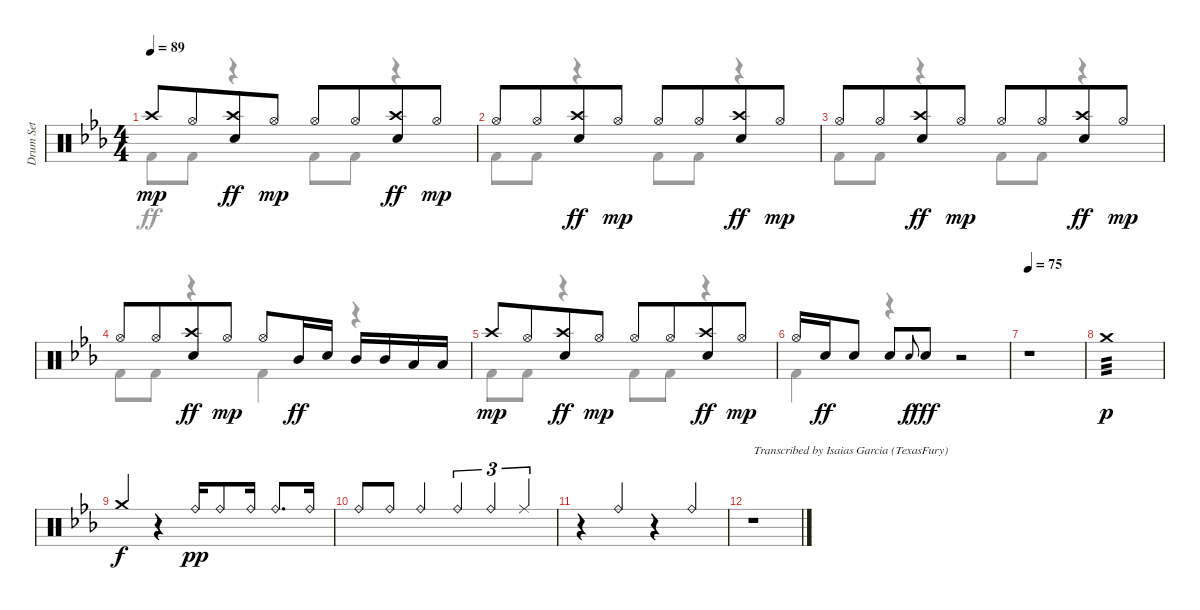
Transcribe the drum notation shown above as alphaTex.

\track ("Drum Set" "Drum Set") {instrument percussion}
\staff {score}
\articulation defaults
\voice
\ts (4 4)
\tempo 89
\clef neutral
\ks eb "Crash high (hit)".8{dy mp} "Hi-Hat (open)".8{beam merge}
("Crash high (hit)" "Electric Snare (hit)").8{dy ff} "Hi-Hat (open)".8{dy mp} "Hi-Hat (open)".8 "Hi-Hat (open)".8{beam merge} ("Crash high (hit)" "Electric Snare (hit)").8{dy ff} "Hi-Hat (open)".8{dy mp} |
"Hi-Hat (open)".8 "Hi-Hat (open)".8{beam merge} ("Crash high (hit)" "Electric Snare (hit)").8{dy ff} "Hi-Hat (open)".8{dy mp} "Hi-Hat (open)".8 "Hi-Hat (open)".8{beam merge} ("Crash high (hit)" "Electric Snare (hit)").8{dy ff} "Hi-Hat (open)".8{dy mp} |
"Hi-Hat (open)".8 "Hi-Hat (open)".8{beam merge} ("Crash high (hit)" "Electric Snare (hit)").8{dy ff} "Hi-Hat (open)".8{dy mp} "Hi-Hat (open)".8 "Hi-Hat (open)".8{beam merge} ("Crash high (hit)" "Electric Snare (hit)").8{dy ff} "Hi-Hat (open)".8{dy mp} |
"Hi-Hat (open)".8 "Hi-Hat (open)".8{beam merge} ("Crash high (hit)" "Electric Snare (hit)").8{dy ff} "Hi-Hat (open)".8{dy mp} "Hi-Hat (open)".8 "Mid Tom (hit)".16{dy ff} "Electric Snare (hit)".16 "Mid Tom (hit)".16 "Mid Tom (hit)".16 "Low Tom (hit)".16 "Low Tom (hit)".16 |
"Crash high (hit)".8{dy mp} "Hi-Hat (open)".8{beam merge} ("Crash high (hit)" "Electric Snare (hit)").8{dy ff} "Hi-Hat (open)".8{dy mp} "Hi-Hat (open)".8 "Hi-Hat (open)".8{beam merge} ("Crash high (hit)" "Electric Snare (hit)").8{dy ff} "Hi-Hat (open)".8{dy mp} |
"Hi-Hat (open)".16 "Electric Snare (hit)".16{dy ff} "Electric Snare (hit)".8 "Electric Snare (hit)".8 "Electric Snare (hit)".8{gr onbeat dy f} "Electric Snare (hit)".8{dy fff} r.2 |
\tempo 75
r.1{volume 1} |
"Crash medium (hit)".1{tp 3 dy p volume 8} |
"Crash medium (hit)".4{dy f volume 4 beam Up} r.4 "Ride (bell)".16{dy pp beam Up} "Ride (bell)".8{beam Up} "Ride (bell)".16{beam Up} "Ride (bell)".8{d beam Up} "Ride (bell)".16{beam Up} |
"Ride (bell)".8{beam Up} "Ride (bell)".8{beam Up} "Ride (bell)".4{beam Up} "Ride (bell)".4{tu (3 2) beam Up} "Ride (bell)".4{tu (3 2) beam Up} "Ride (middle)".4{tu (3 2) beam Up} |
r.4 "Ride (bell)".4{beam Up} r.4 "Ride (bell)".4{beam Up} |
r.1{txt "Transcribed by Isaias Garcia (TexasFury)"}
\voice
\clef neutral
\ottava regular
\simile none
\ks eb "Kick (hit) 2".8{dy ff} "Kick (hit) 2".8
r.4 "Kick (hit) 2".8 "Kick (hit) 2".8 r.4 |
"Kick (hit) 2".8 "Kick (hit) 2".8 r.4 "Kick (hit) 2".8 "Kick (hit) 2".8 r.4 |
"Kick (hit) 2".8 "Kick (hit) 2".8 r.4 "Kick (hit) 2".8 "Kick (hit) 2".8 r.4 |
"Kick (hit) 2".8 "Kick (hit) 2".8 r.4 "Kick (hit) 2".4 r.4 |
"Kick (hit) 2".8 "Kick (hit) 2".8 r.4 "Kick (hit) 2".8 "Kick (hit) 2".8 r.4 |
"Kick (hit) 2".4 r.4 r.2 |
|
|
|
|
|
